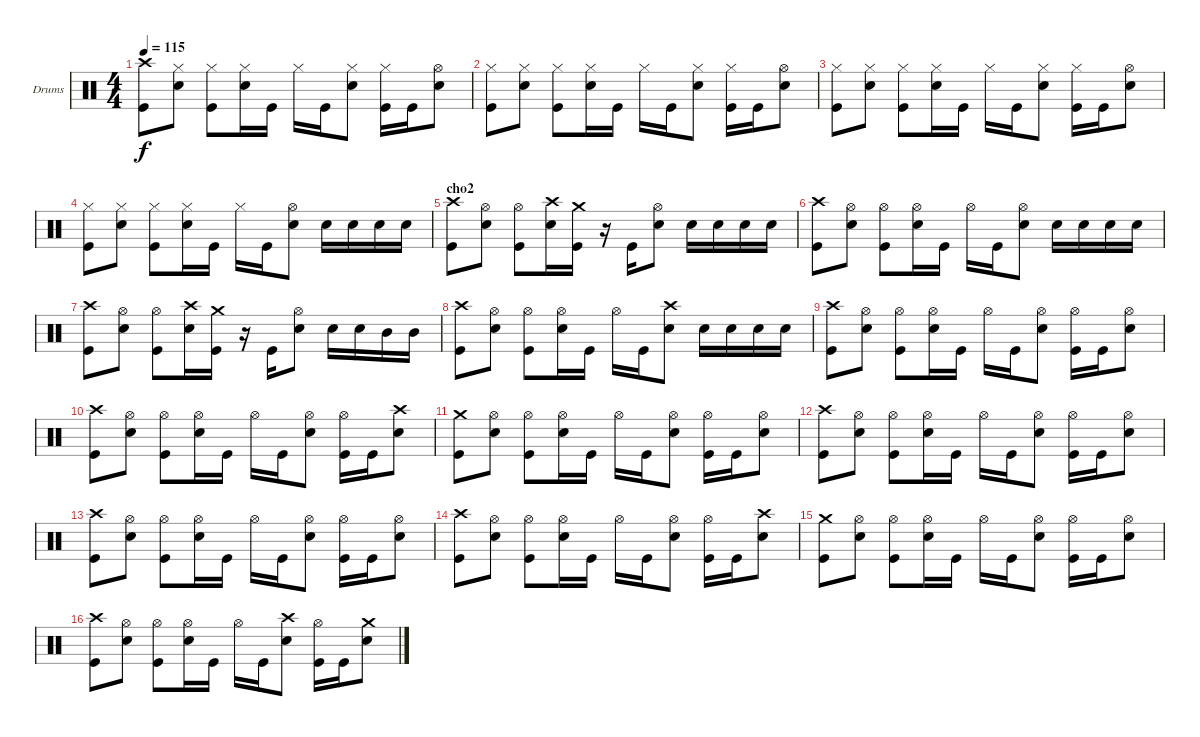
\bracketExtendMode groupsimilarinstruments
\firstSystemTrackNameOrientation horizontal
\otherSystemsTrackNameOrientation horizontal
\track ("Drumkit" "Drums") {instrument percussion}
\staff {score}
\articulation defaults
\ts (4 4)
\tempo 115
\clef neutral
\ks c
("Crash high (hit)" "Kick (hit)").8{dy f} ("Hi-Hat (closed)" "Snare (hit) 2").8 ("Hi-Hat (closed)" "Kick (hit)").8 ("Hi-Hat (closed)" "Snare (hit) 2").16 "Kick (hit)".16 "Hi-Hat (closed)".16 "Kick (hit)".16 ("Hi-Hat (closed)" "Snare (hit) 2").8 ("Hi-Hat (closed)" "Kick (hit)").16 "Kick (hit)".16 ("Hi-Hat (open)" "Snare (hit) 2").8 |
("Hi-Hat (closed)" "Kick (hit)").8 ("Hi-Hat (closed)" "Snare (hit) 2").8 ("Hi-Hat (closed)" "Kick (hit)").8 ("Hi-Hat (closed)" "Snare (hit) 2").16 "Kick (hit)".16 "Hi-Hat (closed)".16 "Kick (hit)".16 ("Hi-Hat (closed)" "Snare (hit) 2").8 ("Hi-Hat (closed)" "Kick (hit)").16 "Kick (hit)".16 ("Hi-Hat (open)" "Snare (hit) 2").8 |
("Hi-Hat (closed)" "Kick (hit)").8 ("Hi-Hat (closed)" "Snare (hit) 2").8 ("Hi-Hat (closed)" "Kick (hit)").8 ("Hi-Hat (closed)" "Snare (hit) 2").16 "Kick (hit)".16 "Hi-Hat (closed)".16 "Kick (hit)".16 ("Hi-Hat (closed)" "Snare (hit) 2").8 ("Hi-Hat (closed)" "Kick (hit)").16 "Kick (hit)".16 ("Hi-Hat (open)" "Snare (hit) 2").8 |
("Hi-Hat (closed)" "Kick (hit)").8 ("Hi-Hat (closed)" "Snare (hit) 2").8 ("Hi-Hat (closed)" "Kick (hit)").8 ("Hi-Hat (closed)" "Snare (hit) 2").16 "Kick (hit)".16 "Hi-Hat (closed)".16 "Kick (hit)".16 ("Hi-Hat (open)" "Snare (hit) 2").8 "Snare (hit) 2".16 "Snare (hit) 2".16 "Snare (hit) 2".16 "Snare (hit) 2".16 |
\section ("" "cho2")
("Crash high (hit)" "Kick (hit)").8 ("Hi-Hat (open)" "Snare (hit) 2").8 ("Hi-Hat (open)" "Kick (hit)").8 ("Crash high (hit)" "Snare (hit) 2").16 ("Crash medium (hit)" "Kick (hit)").16 r.16 "Kick (hit)".16 ("Hi-Hat (open)" "Snare (hit) 2").8 "Snare (hit) 2".16 "Snare (hit) 2".16 "Snare (hit) 2".16 "Snare (hit) 2".16 |
("Crash high (hit)" "Kick (hit)").8 ("Hi-Hat (open)" "Snare (hit) 2").8 ("Hi-Hat (open)" "Kick (hit)").8 ("Hi-Hat (open)" "Snare (hit) 2").16 "Kick (hit)".16 "Hi-Hat (open)".16 "Kick (hit)".16 ("Hi-Hat (open)" "Snare (hit) 2").8 "Snare (hit) 2".16 "Snare (hit) 2".16 "Snare (hit) 2".16 "Snare (hit) 2".16 |
("Crash high (hit)" "Kick (hit)").8 ("Hi-Hat (open)" "Snare (hit) 2").8 ("Hi-Hat (open)" "Kick (hit)").8 ("Crash high (hit)" "Snare (hit) 2").16 ("Crash medium (hit)" "Kick (hit)").16 r.16 "Kick (hit)".16 ("Hi-Hat (open)" "Snare (hit) 2").8 "Snare (hit) 2".16 "Snare (hit) 2".16 "Mid Tom (hit)".16 "Mid Tom (hit)".16 |
("Crash high (hit)" "Kick (hit)").8 ("Hi-Hat (open)" "Snare (hit) 2").8 ("Hi-Hat (open)" "Kick (hit)").8 ("Hi-Hat (open)" "Snare (hit) 2").16 "Kick (hit)".16 "Hi-Hat (open)".16 "Kick (hit)".16 ("Crash high (hit)" "Snare (hit) 2").8 "Snare (hit) 2".16 "Snare (hit) 2".16 "Snare (hit) 2".16 "Snare (hit) 2".16 |
("Crash high (hit)" "Kick (hit)").8 ("Hi-Hat (open)" "Snare (hit) 2").8 ("Hi-Hat (open)" "Kick (hit)").8 ("Hi-Hat (open)" "Snare (hit) 2").16 "Kick (hit)".16 "Hi-Hat (open)".16 "Kick (hit)".16 ("Hi-Hat (open)" "Snare (hit) 2").8 ("Hi-Hat (open)" "Kick (hit)").16 "Kick (hit)".16 ("Hi-Hat (open)" "Snare (hit) 2").8 |
("Crash high (hit)" "Kick (hit)").8 ("Hi-Hat (open)" "Snare (hit) 2").8 ("Hi-Hat (open)" "Kick (hit)").8 ("Hi-Hat (open)" "Snare (hit) 2").16 "Kick (hit)".16 "Hi-Hat (open)".16 "Kick (hit)".16 ("Hi-Hat (open)" "Snare (hit) 2").8 ("Hi-Hat (open)" "Kick (hit)").16 "Kick (hit)".16 ("Crash high (hit)" "Snare (hit) 2").8 |
("Crash medium (hit)" "Kick (hit)").8 ("Hi-Hat (open)" "Snare (hit) 2").8 ("Hi-Hat (open)" "Kick (hit)").8 ("Hi-Hat (open)" "Snare (hit) 2").16 "Kick (hit)".16 "Hi-Hat (open)".16 "Kick (hit)".16 ("Hi-Hat (open)" "Snare (hit) 2").8 ("Hi-Hat (open)" "Kick (hit)").16 "Kick (hit)".16 ("Hi-Hat (open)" "Snare (hit) 2").8 |
("Crash high (hit)" "Kick (hit)").8 ("Hi-Hat (open)" "Snare (hit) 2").8 ("Hi-Hat (open)" "Kick (hit)").8 ("Hi-Hat (open)" "Snare (hit) 2").16 "Kick (hit)".16 "Hi-Hat (open)".16 "Kick (hit)".16 ("Hi-Hat (open)" "Snare (hit) 2").8 ("Hi-Hat (open)" "Kick (hit)").16 "Kick (hit)".16 ("Hi-Hat (open)" "Snare (hit) 2").8 |
("Crash high (hit)" "Kick (hit)").8 ("Hi-Hat (open)" "Snare (hit) 2").8 ("Hi-Hat (open)" "Kick (hit)").8 ("Hi-Hat (open)" "Snare (hit) 2").16 "Kick (hit)".16 "Hi-Hat (open)".16 "Kick (hit)".16 ("Hi-Hat (open)" "Snare (hit) 2").8 ("Hi-Hat (open)" "Kick (hit)").16 "Kick (hit)".16 ("Hi-Hat (open)" "Snare (hit) 2").8 |
("Crash high (hit)" "Kick (hit)").8 ("Hi-Hat (open)" "Snare (hit) 2").8 ("Hi-Hat (open)" "Kick (hit)").8 ("Hi-Hat (open)" "Snare (hit) 2").16 "Kick (hit)".16 "Hi-Hat (open)".16 "Kick (hit)".16 ("Hi-Hat (open)" "Snare (hit) 2").8 ("Hi-Hat (open)" "Kick (hit)").16 "Kick (hit)".16 ("Crash high (hit)" "Snare (hit) 2").8 |
("Crash medium (hit)" "Kick (hit)").8 ("Hi-Hat (open)" "Snare (hit) 2").8 ("Hi-Hat (open)" "Kick (hit)").8 ("Hi-Hat (open)" "Snare (hit) 2").16 "Kick (hit)".16 "Hi-Hat (open)".16 "Kick (hit)".16 ("Hi-Hat (open)" "Snare (hit) 2").8 ("Hi-Hat (open)" "Kick (hit)").16 "Kick (hit)".16 ("Hi-Hat (open)" "Snare (hit) 2").8 |
("Crash high (hit)" "Kick (hit)").8 ("Hi-Hat (open)" "Snare (hit) 2").8 ("Hi-Hat (open)" "Kick (hit)").8 ("Hi-Hat (open)" "Snare (hit) 2").16 "Kick (hit)".16 "Hi-Hat (open)".16 "Kick (hit)".16 ("Crash high (hit)" "Snare (hit) 2").8 ("Hi-Hat (open)" "Kick (hit)").16 "Kick (hit)".16 ("Crash medium (hit)" "Snare (hit) 2").8
